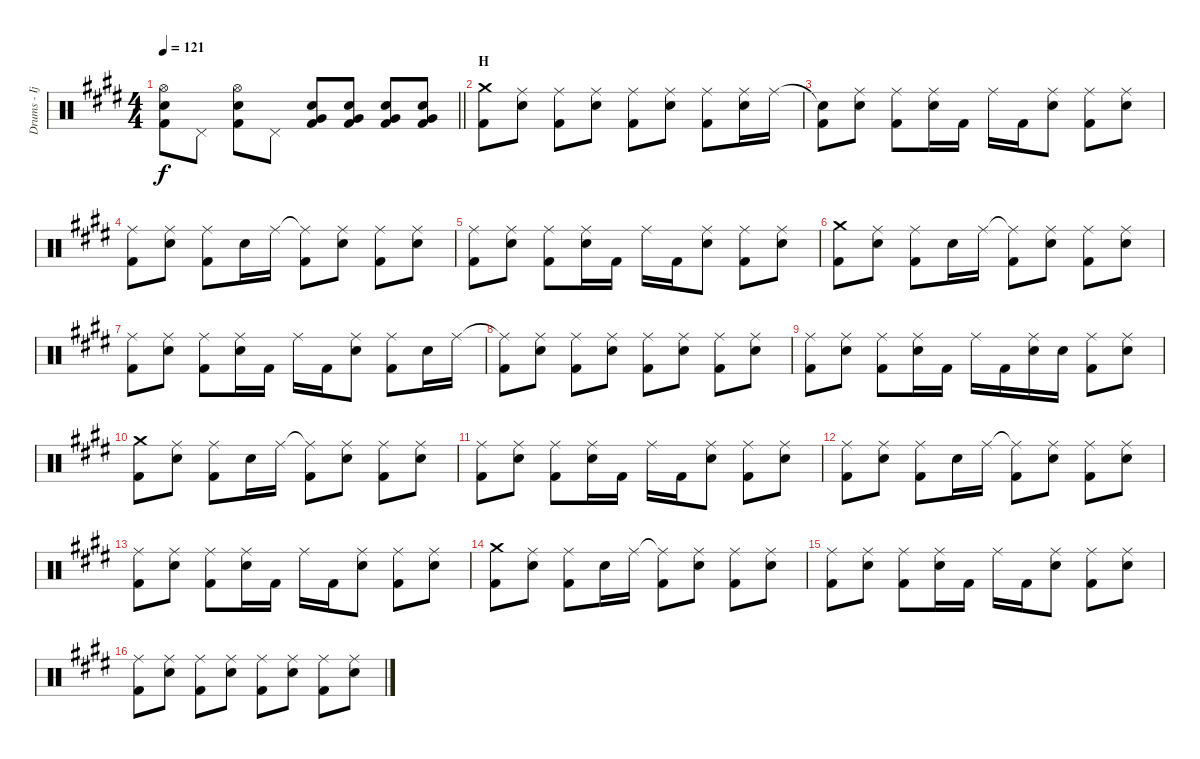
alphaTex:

\track ("Drums - Ijichi Kiyoshi" "Drums - Ij") {instrument percussion}
\staff {score}
\articulation defaults
\ts (4 4)
\tempo 121
\clef neutral
\barLineRight lightlight
\ks e
("Hi-Hat (open)" "Electric Snare (hit)" "Kick (hit) 2").8{dy f} "Pedal Hi-Hat (hit)".8 ("Hi-Hat (open)" "Electric Snare (hit)" "Kick (hit) 2").8 "Pedal Hi-Hat (hit)".8 ("Electric Snare (hit)" "Very Low Tom (hit)" "Kick (hit) 2").8 ("Electric Snare (hit)" "Very Low Tom (hit)" "Kick (hit) 2").8 ("Electric Snare (hit)" "Very Low Tom (hit)" "Kick (hit) 2").8 ("Electric Snare (hit)" "Very Low Tom (hit)" "Kick (hit) 2").8 |
\section ("" "H")
("Crash medium (hit)" "Kick (hit) 2").8 ("Ride (middle)" "Electric Snare (hit)").8 ("Ride (middle)" "Kick (hit) 2").8 ("Ride (middle)" "Electric Snare (hit)").8 ("Ride (middle)" "Kick (hit) 2").8 ("Ride (middle)" "Electric Snare (hit)").8 ("Ride (middle)" "Kick (hit) 2").8 ("Ride (middle)" "Electric Snare (hit)").16 "Ride (middle)".16 |
("Snare (hit)"{t} "Kick (hit) 2").8 ("Ride (middle)" "Electric Snare (hit)").8 ("Ride (middle)" "Kick (hit) 2").8 ("Ride (middle)" "Electric Snare (hit)").16 "Kick (hit) 2".16 "Ride (middle)".16 "Kick (hit) 2".16 ("Ride (middle)" "Electric Snare (hit)").8 ("Ride (middle)" "Kick (hit) 2").8 ("Ride (middle)" "Electric Snare (hit)").8 |
("Ride (middle)" "Kick (hit) 2").8 ("Ride (middle)" "Electric Snare (hit)").8 ("Ride (middle)" "Kick (hit) 2").8 "Electric Snare (hit)".16 "Ride (middle)".16 ("Ride (middle)"{t} "Kick (hit) 2").8 ("Ride (middle)" "Electric Snare (hit)").8 ("Ride (middle)" "Kick (hit) 2").8 ("Ride (middle)" "Electric Snare (hit)").8 |
("Ride (middle)" "Kick (hit) 2").8 ("Ride (middle)" "Electric Snare (hit)").8 ("Ride (middle)" "Kick (hit) 2").8 ("Ride (middle)" "Electric Snare (hit)").16 "Kick (hit) 2".16 "Ride (middle)".16 "Kick (hit) 2".16 ("Ride (middle)" "Electric Snare (hit)").8 ("Ride (middle)" "Kick (hit) 2").8 ("Ride (middle)" "Electric Snare (hit)").8 |
("Crash medium (hit)" "Kick (hit) 2").8 ("Ride (middle)" "Electric Snare (hit)").8 ("Ride (middle)" "Kick (hit) 2").8 "Electric Snare (hit)".16 "Ride (middle)".16 ("Ride (middle)"{t} "Kick (hit) 2").8 ("Ride (middle)" "Electric Snare (hit)").8 ("Ride (middle)" "Kick (hit) 2").8 ("Ride (middle)" "Electric Snare (hit)").8 |
("Ride (middle)" "Kick (hit) 2").8 ("Ride (middle)" "Electric Snare (hit)").8 ("Ride (middle)" "Kick (hit) 2").8 ("Ride (middle)" "Electric Snare (hit)").16 "Kick (hit) 2".16 "Ride (middle)".16 "Kick (hit) 2".16 ("Ride (middle)" "Electric Snare (hit)").8 ("Ride (middle)" "Kick (hit) 2").8 "Electric Snare (hit)".16 "Ride (middle)".16 |
("Ride (middle)"{t} "Kick (hit) 2").8 ("Ride (middle)" "Electric Snare (hit)").8 ("Ride (middle)" "Kick (hit) 2").8 ("Ride (middle)" "Electric Snare (hit)").8 ("Ride (middle)" "Kick (hit) 2").8 ("Ride (middle)" "Electric Snare (hit)").8 ("Ride (middle)" "Kick (hit) 2").8 ("Ride (middle)" "Electric Snare (hit)").8 |
("Ride (middle)" "Kick (hit) 2").8 ("Ride (middle)" "Electric Snare (hit)").8 ("Ride (middle)" "Kick (hit) 2").8 ("Ride (middle)" "Electric Snare (hit)").16 "Kick (hit) 2".16 "Ride (middle)".16 "Kick (hit) 2".16 ("Ride (middle)" "Electric Snare (hit)").16 "Electric Snare (hit)".16 ("Ride (middle)" "Kick (hit) 2").8 ("Ride (middle)" "Electric Snare (hit)").8 |
("Crash medium (hit)" "Kick (hit) 2").8 ("Ride (middle)" "Electric Snare (hit)").8 ("Ride (middle)" "Kick (hit) 2").8 "Electric Snare (hit)".16 "Ride (middle)".16 ("Ride (middle)"{t} "Kick (hit) 2").8 ("Ride (middle)" "Electric Snare (hit)").8 ("Ride (middle)" "Kick (hit) 2").8 ("Ride (middle)" "Electric Snare (hit)").8 |
("Ride (middle)" "Kick (hit) 2").8 ("Ride (middle)" "Electric Snare (hit)").8 ("Ride (middle)" "Kick (hit) 2").8 ("Ride (middle)" "Electric Snare (hit)").16 "Kick (hit) 2".16 "Ride (middle)".16 "Kick (hit) 2".16 ("Ride (middle)" "Electric Snare (hit)").8 ("Ride (middle)" "Kick (hit) 2").8 ("Ride (middle)" "Electric Snare (hit)").8 |
("Ride (middle)" "Kick (hit) 2").8 ("Ride (middle)" "Electric Snare (hit)").8 ("Ride (middle)" "Kick (hit) 2").8 "Electric Snare (hit)".16 "Ride (middle)".16 ("Ride (middle)"{t} "Kick (hit) 2").8 ("Ride (middle)" "Electric Snare (hit)").8 ("Ride (middle)" "Kick (hit) 2").8 ("Ride (middle)" "Electric Snare (hit)").8 |
("Ride (middle)" "Kick (hit) 2").8 ("Ride (middle)" "Electric Snare (hit)").8 ("Ride (middle)" "Kick (hit) 2").8 ("Ride (middle)" "Electric Snare (hit)").16 "Kick (hit) 2".16 "Ride (middle)".16 "Kick (hit) 2".16 ("Ride (middle)" "Electric Snare (hit)").8 ("Ride (middle)" "Kick (hit) 2").8 ("Ride (middle)" "Electric Snare (hit)").8 |
("Crash medium (hit)" "Kick (hit) 2").8 ("Ride (middle)" "Electric Snare (hit)").8 ("Ride (middle)" "Kick (hit) 2").8 "Electric Snare (hit)".16 "Ride (middle)".16 ("Ride (middle)"{t} "Kick (hit) 2").8 ("Ride (middle)" "Electric Snare (hit)").8 ("Ride (middle)" "Kick (hit) 2").8 ("Ride (middle)" "Electric Snare (hit)").8 |
("Ride (middle)" "Kick (hit) 2").8 ("Ride (middle)" "Electric Snare (hit)").8 ("Ride (middle)" "Kick (hit) 2").8 ("Ride (middle)" "Electric Snare (hit)").16 "Kick (hit) 2".16 "Ride (middle)".16 "Kick (hit) 2".16 ("Ride (middle)" "Electric Snare (hit)").8 ("Ride (middle)" "Kick (hit) 2").8 ("Ride (middle)" "Electric Snare (hit)").8 |
("Ride (middle)" "Kick (hit) 2").8 ("Ride (middle)" "Electric Snare (hit)").8 ("Ride (middle)" "Kick (hit) 2").8 ("Ride (middle)" "Electric Snare (hit)").8 ("Ride (middle)" "Kick (hit) 2").8 ("Ride (middle)" "Electric Snare (hit)").8 ("Ride (middle)" "Kick (hit) 2").8 ("Ride (middle)" "Electric Snare (hit)").8
